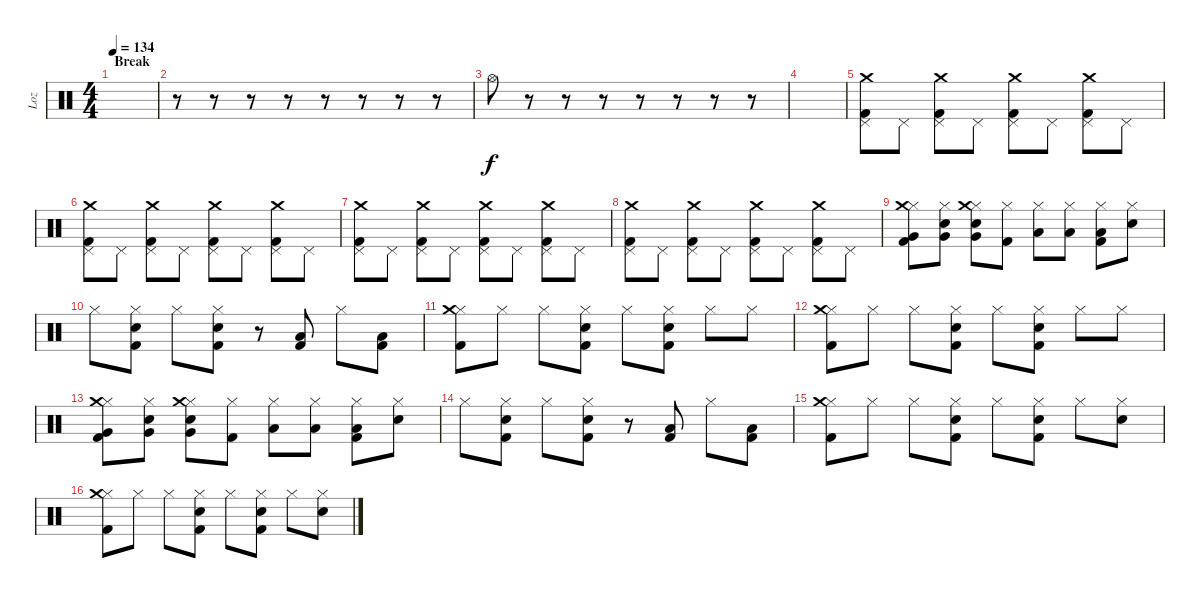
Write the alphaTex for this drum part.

\track ("Loz" "Loz") {instrument percussion}
\staff {score}
\articulation defaults
\ts (4 4)
\section ("" "Break")
\tempo 134
\clef neutral
\ks c
|
r.8 r.8 r.8 r.8 r.8 r.8 r.8 r.8 |
"Hi-Hat (open)".8 r.8 r.8 r.8 r.8 r.8 r.8 r.8 |
|
("Crash medium (hit)" "Pedal Hi-Hat (hit)" "Kick (hit) 2").8 "Pedal Hi-Hat (hit)".8 ("Crash medium (hit)" "Pedal Hi-Hat (hit)" "Kick (hit) 2").8 "Pedal Hi-Hat (hit)".8 ("Crash medium (hit)" "Pedal Hi-Hat (hit)" "Kick (hit) 2").8 "Pedal Hi-Hat (hit)".8 ("Crash medium (hit)" "Pedal Hi-Hat (hit)" "Kick (hit) 2").8 "Pedal Hi-Hat (hit)".8 |
("Crash medium (hit)" "Pedal Hi-Hat (hit)" "Kick (hit) 2").8 "Pedal Hi-Hat (hit)".8 ("Crash medium (hit)" "Pedal Hi-Hat (hit)" "Kick (hit) 2").8 "Pedal Hi-Hat (hit)".8 ("Crash medium (hit)" "Pedal Hi-Hat (hit)" "Kick (hit) 2").8 "Pedal Hi-Hat (hit)".8 ("Crash medium (hit)" "Pedal Hi-Hat (hit)" "Kick (hit) 2").8 "Pedal Hi-Hat (hit)".8 |
("Crash medium (hit)" "Pedal Hi-Hat (hit)" "Kick (hit) 2").8 "Pedal Hi-Hat (hit)".8 ("Crash medium (hit)" "Pedal Hi-Hat (hit)" "Kick (hit) 2").8 "Pedal Hi-Hat (hit)".8 ("Crash medium (hit)" "Pedal Hi-Hat (hit)" "Kick (hit) 2").8 "Pedal Hi-Hat (hit)".8 ("Crash medium (hit)" "Pedal Hi-Hat (hit)" "Kick (hit) 2").8 "Pedal Hi-Hat (hit)".8 |
("Crash medium (hit)" "Pedal Hi-Hat (hit)" "Kick (hit) 2").8 "Pedal Hi-Hat (hit)".8 ("Crash medium (hit)" "Pedal Hi-Hat (hit)" "Kick (hit) 2").8 "Pedal Hi-Hat (hit)".8 ("Crash medium (hit)" "Pedal Hi-Hat (hit)" "Kick (hit) 2").8 "Pedal Hi-Hat (hit)".8 ("Crash medium (hit)" "Pedal Hi-Hat (hit)" "Kick (hit) 2").8 "Pedal Hi-Hat (hit)".8 |
("Hi-Hat (closed)" "Crash medium (hit)" "Very Low Tom (hit)" "Kick (hit) 2").8 ("Hi-Hat (closed)" "Electric Snare (hit)" "Very Low Tom (hit)").8 ("Hi-Hat (closed)" "Crash medium (hit)" "Electric Snare (hit)" "Very Low Tom (hit)").8 ("Hi-Hat (closed)" "Kick (hit) 2").8 ("Hi-Hat (closed)" "Low Floor Tom (hit)").8 ("Hi-Hat (closed)" "Low Floor Tom (hit)").8 ("Hi-Hat (closed)" "Low Floor Tom (hit)" "Kick (hit) 2").8 ("Hi-Hat (closed)" "Electric Snare (hit)").8 |
"Hi-Hat (closed)".8 ("Hi-Hat (closed)" "Electric Snare (hit)" "Kick (hit) 2").8 "Hi-Hat (closed)".8 ("Hi-Hat (closed)" "Electric Snare (hit)" "Kick (hit) 2").8 r.8 ("Low Floor Tom (hit)" "Kick (hit) 2").8 "Hi-Hat (closed)".8 ("Low Floor Tom (hit)" "Kick (hit) 2").8 |
("Hi-Hat (closed)" "Crash medium (hit)" "Kick (hit) 2").8 "Hi-Hat (closed)".8 "Hi-Hat (closed)".8 ("Hi-Hat (closed)" "Electric Snare (hit)" "Kick (hit) 2").8 "Hi-Hat (closed)".8 ("Hi-Hat (closed)" "Electric Snare (hit)" "Kick (hit) 2").8 "Hi-Hat (closed)".8 "Hi-Hat (closed)".8 |
("Hi-Hat (closed)" "Crash medium (hit)" "Kick (hit) 2").8 "Hi-Hat (closed)".8 "Hi-Hat (closed)".8 ("Hi-Hat (closed)" "Electric Snare (hit)" "Kick (hit) 2").8 "Hi-Hat (closed)".8 ("Hi-Hat (closed)" "Electric Snare (hit)" "Kick (hit) 2").8 "Hi-Hat (closed)".8 "Hi-Hat (closed)".8 |
("Hi-Hat (closed)" "Crash medium (hit)" "Very Low Tom (hit)" "Kick (hit) 2").8 ("Hi-Hat (closed)" "Electric Snare (hit)" "Very Low Tom (hit)").8 ("Hi-Hat (closed)" "Crash medium (hit)" "Electric Snare (hit)" "Very Low Tom (hit)").8 ("Hi-Hat (closed)" "Kick (hit) 2").8 ("Hi-Hat (closed)" "Low Floor Tom (hit)").8 ("Hi-Hat (closed)" "Low Floor Tom (hit)").8 ("Hi-Hat (closed)" "Low Floor Tom (hit)" "Kick (hit) 2").8 ("Hi-Hat (closed)" "Electric Snare (hit)").8 |
"Hi-Hat (closed)".8 ("Hi-Hat (closed)" "Electric Snare (hit)" "Kick (hit) 2").8 "Hi-Hat (closed)".8 ("Hi-Hat (closed)" "Electric Snare (hit)" "Kick (hit) 2").8 r.8 ("Low Floor Tom (hit)" "Kick (hit) 2").8 "Hi-Hat (closed)".8 ("Low Floor Tom (hit)" "Kick (hit) 2").8 |
("Hi-Hat (closed)" "Crash medium (hit)" "Kick (hit) 2").8 "Hi-Hat (closed)".8 "Hi-Hat (closed)".8 ("Hi-Hat (closed)" "Electric Snare (hit)" "Kick (hit) 2").8 "Hi-Hat (closed)".8 ("Hi-Hat (closed)" "Electric Snare (hit)" "Kick (hit) 2").8 "Hi-Hat (closed)".8 ("Hi-Hat (closed)" "Electric Snare (hit)").8 |
("Hi-Hat (closed)" "Crash medium (hit)" "Kick (hit) 2").8 "Hi-Hat (closed)".8 "Hi-Hat (closed)".8 ("Hi-Hat (closed)" "Electric Snare (hit)" "Kick (hit) 2").8 "Hi-Hat (closed)".8 ("Hi-Hat (closed)" "Electric Snare (hit)" "Kick (hit) 2").8 "Hi-Hat (closed)".8 ("Hi-Hat (closed)" "Electric Snare (hit)").8
